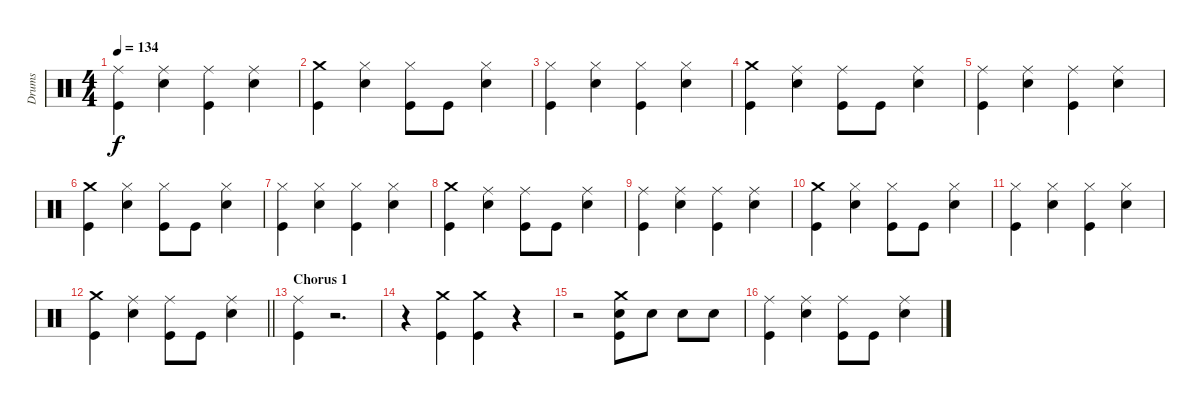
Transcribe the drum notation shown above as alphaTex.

\track ("Drums" "Drums") {instrument percussion}
\staff {score}
\articulation defaults
\ts (4 4)
\tempo 134
\clef neutral
\ks c
("Ride (middle)" "Kick (hit)").4{dy f} ("Ride (middle)" "Snare (hit) 2").4 ("Ride (middle)" "Kick (hit)").4 ("Ride (middle)" "Snare (hit) 2").4 |
("Crash medium (hit)" "Kick (hit)").4 ("Hi-Hat (closed)" "Snare (hit) 2").4 ("Hi-Hat (closed)" "Kick (hit)").8 "Kick (hit)".8 ("Hi-Hat (closed)" "Snare (hit) 2").4 |
("Hi-Hat (closed)" "Kick (hit)").4 ("Hi-Hat (closed)" "Snare (hit) 2").4 ("Hi-Hat (closed)" "Kick (hit)").4 ("Hi-Hat (closed)" "Snare (hit) 2").4 |
("Crash medium (hit)" "Kick (hit)").4 ("Ride (middle)" "Snare (hit) 2").4 ("Ride (middle)" "Kick (hit)").8 "Kick (hit)".8 ("Ride (middle)" "Snare (hit) 2").4 |
("Ride (middle)" "Kick (hit)").4 ("Ride (middle)" "Snare (hit) 2").4 ("Ride (middle)" "Kick (hit)").4 ("Ride (middle)" "Snare (hit) 2").4 |
("Crash medium (hit)" "Kick (hit)").4 ("Hi-Hat (closed)" "Snare (hit) 2").4 ("Hi-Hat (closed)" "Kick (hit)").8 "Kick (hit)".8 ("Hi-Hat (closed)" "Snare (hit) 2").4 |
("Hi-Hat (closed)" "Kick (hit)").4 ("Hi-Hat (closed)" "Snare (hit) 2").4 ("Hi-Hat (closed)" "Kick (hit)").4 ("Hi-Hat (closed)" "Snare (hit) 2").4 |
("Crash medium (hit)" "Kick (hit)").4 ("Ride (middle)" "Snare (hit) 2").4 ("Ride (middle)" "Kick (hit)").8 "Kick (hit)".8 ("Ride (middle)" "Snare (hit) 2").4 |
("Ride (middle)" "Kick (hit)").4 ("Ride (middle)" "Snare (hit) 2").4 ("Ride (middle)" "Kick (hit)").4 ("Ride (middle)" "Snare (hit) 2").4 |
("Crash medium (hit)" "Kick (hit)").4 ("Hi-Hat (closed)" "Snare (hit) 2").4 ("Hi-Hat (closed)" "Kick (hit)").8 "Kick (hit)".8 ("Hi-Hat (closed)" "Snare (hit) 2").4 |
("Hi-Hat (closed)" "Kick (hit)").4 ("Hi-Hat (closed)" "Snare (hit) 2").4 ("Hi-Hat (closed)" "Kick (hit)").4 ("Hi-Hat (closed)" "Snare (hit) 2").4 |
\barLineRight lightlight
("Crash medium (hit)" "Kick (hit)").4 ("Ride (middle)" "Snare (hit) 2").4 ("Ride (middle)" "Kick (hit)").8 "Kick (hit)".8 ("Ride (middle)" "Snare (hit) 2").4 |
\section ("" "Chorus 1")
("Ride (middle)" "Kick (hit)").4 r.2{d} |
r.4 ("Crash medium (hit)" "Kick (hit)").4 ("Crash medium (hit)" "Kick (hit)").4 r.4 |
r.2 ("Crash medium (hit)" "Snare (hit) 2" "Kick (hit)").8 "Snare (hit) 2".8 "Snare (hit) 2".8 "Snare (hit) 2".8 |
("Ride (middle)" "Kick (hit)").4 ("Ride (middle)" "Snare (hit) 2").4 ("Ride (middle)" "Kick (hit)").8 "Kick (hit)".8 ("Ride (middle)" "Snare (hit) 2").4
